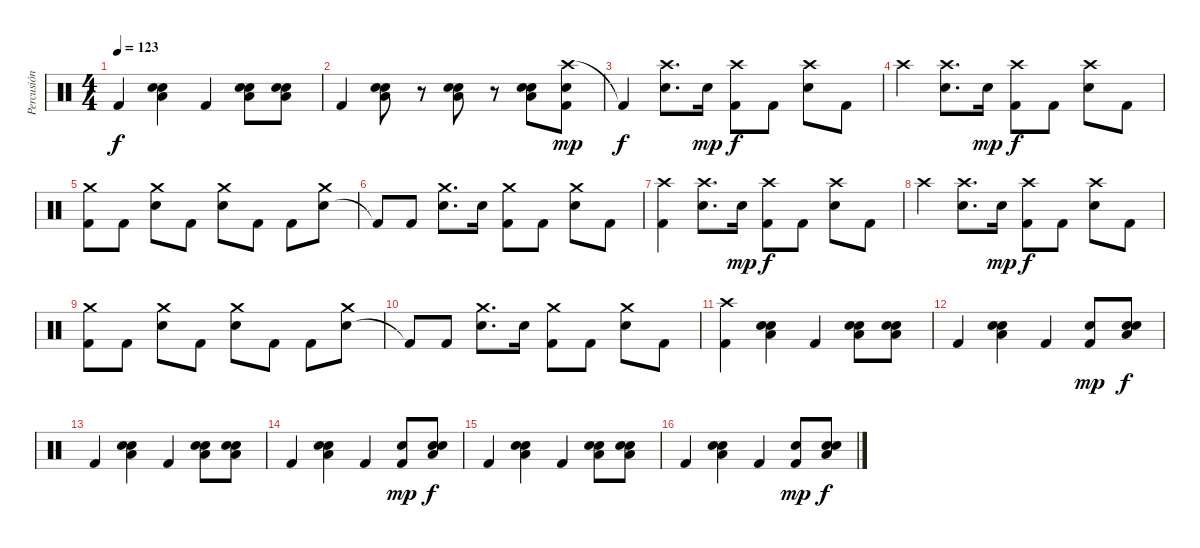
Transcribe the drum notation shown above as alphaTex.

\track ("Percusión" "Percusión") {instrument percussion}
\staff {score}
\articulation defaults
\ts (4 4)
\tempo 123
\clef neutral
\ks c "Kick (hit) 2".4{dy f}
("Snare (hit) 2" "Low Tom (hit)" "Hand Clap (hit)").4 "Kick (hit) 2".4 ("Snare (hit) 2" "Low Tom (hit)" "Hand Clap (hit)").8 ("Snare (hit) 2" "Low Tom (hit)" "Hand Clap (hit)").8 |
"Kick (hit) 2".4 ("Snare (hit) 2" "Low Tom (hit)" "Hand Clap (hit)").8 r.8 ("Snare (hit) 2" "Low Tom (hit)" "Hand Clap (hit)").8 r.8 ("Snare (hit) 2" "Low Tom (hit)" "Hand Clap (hit)").8 ("Crash high (hit)" "Kick (hit) 2" "Hand Clap (hit)").8{dy mp} |
"Kick (hit) 2"{t}.4{dy f} ("Snare (hit) 2" "Crash high (hit)").8{d} "Snare (hit) 2".16{dy mp} ("Kick (hit) 2" "Crash high (hit)").8{dy f} "Kick (hit) 2".8 ("Snare (hit) 2" "Crash high (hit)").8 "Kick (hit) 2".8 |
"Crash high (hit)".4 ("Snare (hit) 2" "Crash high (hit)").8{d} "Snare (hit) 2".16{dy mp} ("Kick (hit) 2" "Crash high (hit)").8{dy f} "Kick (hit) 2".8 ("Snare (hit) 2" "Crash high (hit)").8 "Kick (hit) 2".8 |
("Kick (hit) 2" "Crash medium (hit)").8 "Kick (hit) 2".8 ("Snare (hit) 2" "Crash medium (hit)").8 "Kick (hit) 2".8 ("Snare (hit) 2" "Crash medium (hit)").8 "Kick (hit) 2".8 "Kick (hit) 2".8 ("Snare (hit) 2" "Crash medium (hit)").8 |
"Kick (hit) 2"{t}.8 "Kick (hit) 2".8 ("Snare (hit) 2" "Crash medium (hit)").8{d} "Snare (hit) 2".16 ("Kick (hit) 2" "Crash medium (hit)").8 "Kick (hit) 2".8 ("Snare (hit) 2" "Crash medium (hit)").8 "Kick (hit) 2".8 |
("Kick (hit) 2" "Crash high (hit)").4 ("Snare (hit) 2" "Crash high (hit)").8{d} "Snare (hit) 2".16{dy mp} ("Kick (hit) 2" "Crash high (hit)").8{dy f} "Kick (hit) 2".8 ("Snare (hit) 2" "Crash high (hit)").8 "Kick (hit) 2".8 |
"Crash high (hit)".4 ("Snare (hit) 2" "Crash high (hit)").8{d} "Snare (hit) 2".16{dy mp} ("Kick (hit) 2" "Crash high (hit)").8{dy f} "Kick (hit) 2".8 ("Snare (hit) 2" "Crash high (hit)").8 "Kick (hit) 2".8 |
("Kick (hit) 2" "Crash medium (hit)").8 "Kick (hit) 2".8 ("Snare (hit) 2" "Crash medium (hit)").8 "Kick (hit) 2".8 ("Snare (hit) 2" "Crash medium (hit)").8 "Kick (hit) 2".8 "Kick (hit) 2".8 ("Snare (hit) 2" "Crash medium (hit)").8 |
"Kick (hit) 2"{t}.8 "Kick (hit) 2".8 ("Snare (hit) 2" "Crash medium (hit)").8{d} "Snare (hit) 2".16 ("Kick (hit) 2" "Crash medium (hit)").8 "Kick (hit) 2".8 ("Snare (hit) 2" "Crash medium (hit)").8 "Kick (hit) 2".8 |
("Crash high (hit)" "Kick (hit) 2").4 ("Snare (hit) 2" "Low Tom (hit)" "Hand Clap (hit)").4 "Kick (hit) 2".4 ("Snare (hit) 2" "Low Tom (hit)" "Hand Clap (hit)").8 ("Snare (hit) 2" "Low Tom (hit)" "Hand Clap (hit)").8 |
"Kick (hit) 2".4 ("Snare (hit) 2" "Low Tom (hit)" "Hand Clap (hit)").4 "Kick (hit) 2".4 ("Kick (hit) 2" "Hand Clap (hit)").8{dy mp} ("Snare (hit) 2" "Low Tom (hit)" "Hand Clap (hit)").8{dy f} |
"Kick (hit) 2".4 ("Snare (hit) 2" "Low Tom (hit)" "Hand Clap (hit)").4 "Kick (hit) 2".4 ("Snare (hit) 2" "Low Tom (hit)" "Hand Clap (hit)").8 ("Snare (hit) 2" "Low Tom (hit)" "Hand Clap (hit)").8 |
"Kick (hit) 2".4 ("Snare (hit) 2" "Low Tom (hit)" "Hand Clap (hit)").4 "Kick (hit) 2".4 ("Kick (hit) 2" "Hand Clap (hit)").8{dy mp} ("Snare (hit) 2" "Low Tom (hit)" "Hand Clap (hit)").8{dy f} |
"Kick (hit) 2".4 ("Snare (hit) 2" "Low Tom (hit)" "Hand Clap (hit)").4 "Kick (hit) 2".4 ("Snare (hit) 2" "Low Tom (hit)" "Hand Clap (hit)").8 ("Snare (hit) 2" "Low Tom (hit)" "Hand Clap (hit)").8 |
"Kick (hit) 2".4 ("Snare (hit) 2" "Low Tom (hit)" "Hand Clap (hit)").4 "Kick (hit) 2".4 ("Kick (hit) 2" "Hand Clap (hit)").8{dy mp} ("Snare (hit) 2" "Low Tom (hit)" "Hand Clap (hit)").8{dy f}
